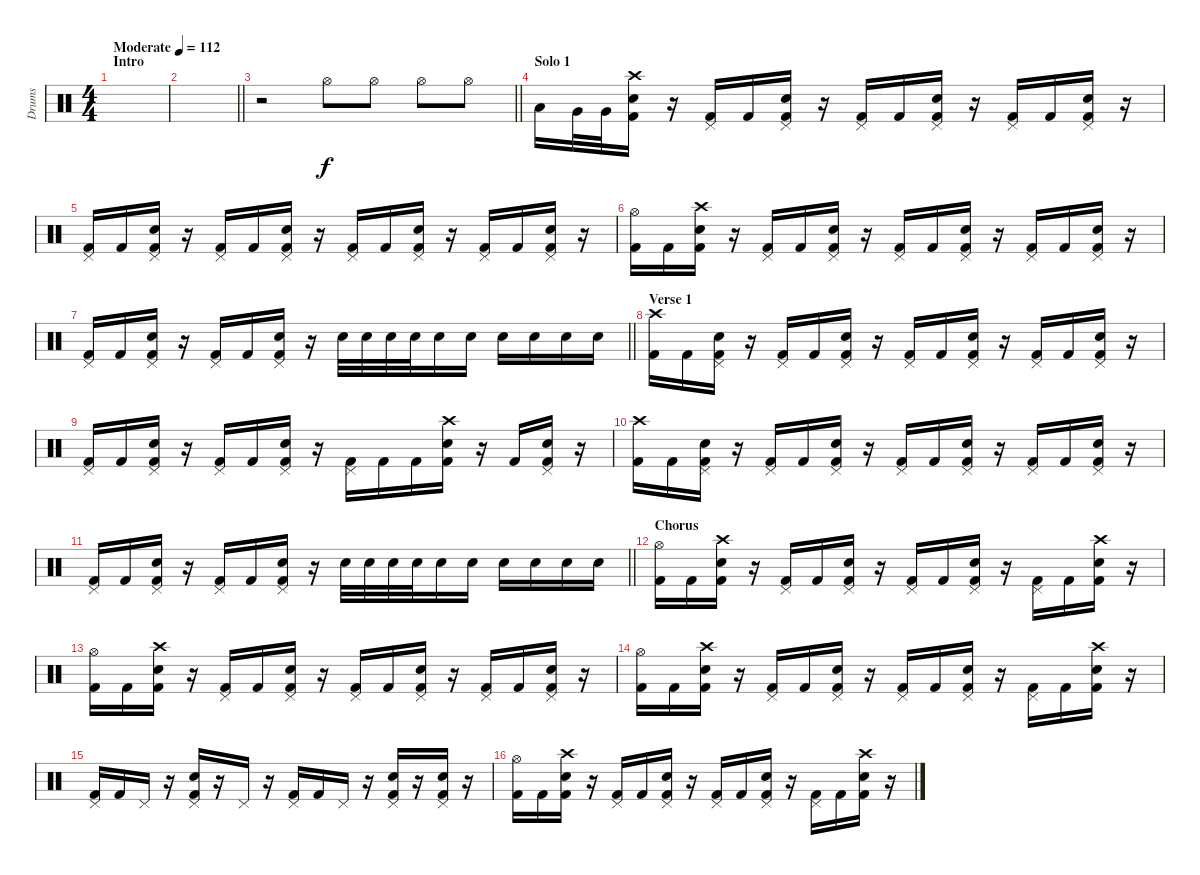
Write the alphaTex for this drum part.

\track ("Drums" "Drums") {instrument percussion}
\staff {score}
\articulation defaults
\ts (4 4)
\section ("" "Intro")
\tempo (112 "Moderate")
\clef neutral
\ks c
|
\barLineRight lightlight
|
\barLineRight lightlight
r.2 "Hi-Hat (open)".8 "Hi-Hat (open)".8 "Hi-Hat (open)".8 "Hi-Hat (open)".8 |
\section ("" "Solo 1")
"Low Tom (hit)".16 "Very Low Tom (hit)".32 "Very Low Tom (hit)".32 ("Crash high (hit)" "Snare (hit) 2" "Kick (hit) 2").16 r.16 ("Pedal Hi-Hat (hit)" "Kick (hit) 2").16 "Kick (hit) 2".16 ("Pedal Hi-Hat (hit)" "Snare (hit) 2" "Kick (hit) 2").16 r.16 ("Pedal Hi-Hat (hit)" "Kick (hit) 2").16 "Kick (hit) 2".16 ("Pedal Hi-Hat (hit)" "Snare (hit) 2" "Kick (hit) 2").16 r.16 ("Pedal Hi-Hat (hit)" "Kick (hit) 2").16 "Kick (hit) 2".16 ("Pedal Hi-Hat (hit)" "Snare (hit) 2" "Kick (hit) 2").16 r.16 |
("Pedal Hi-Hat (hit)" "Kick (hit) 2").16 "Kick (hit) 2".16 ("Pedal Hi-Hat (hit)" "Snare (hit) 2" "Kick (hit) 2").16 r.16 ("Pedal Hi-Hat (hit)" "Kick (hit) 2").16 "Kick (hit) 2".16 ("Pedal Hi-Hat (hit)" "Snare (hit) 2" "Kick (hit) 2").16 r.16 ("Pedal Hi-Hat (hit)" "Kick (hit) 2").16 "Kick (hit) 2".16 ("Pedal Hi-Hat (hit)" "Snare (hit) 2" "Kick (hit) 2").16 r.16 ("Pedal Hi-Hat (hit)" "Kick (hit) 2").16 "Kick (hit) 2".16 ("Pedal Hi-Hat (hit)" "Snare (hit) 2" "Kick (hit) 2").16 r.16 |
("Hi-Hat (open)" "Kick (hit) 2").16 "Kick (hit) 2".16 ("Crash high (hit)" "Snare (hit) 2" "Kick (hit) 2").16 r.16 ("Pedal Hi-Hat (hit)" "Kick (hit) 2").16 "Kick (hit) 2".16 ("Pedal Hi-Hat (hit)" "Snare (hit) 2" "Kick (hit) 2").16 r.16 ("Pedal Hi-Hat (hit)" "Kick (hit) 2").16 "Kick (hit) 2".16 ("Pedal Hi-Hat (hit)" "Snare (hit) 2" "Kick (hit) 2").16 r.16 ("Pedal Hi-Hat (hit)" "Kick (hit) 2").16 "Kick (hit) 2".16 ("Pedal Hi-Hat (hit)" "Snare (hit) 2" "Kick (hit) 2").16 r.16 |
\barLineRight lightlight
("Pedal Hi-Hat (hit)" "Kick (hit) 2").16 "Kick (hit) 2".16 ("Pedal Hi-Hat (hit)" "Snare (hit) 2" "Kick (hit) 2").16 r.16 ("Pedal Hi-Hat (hit)" "Kick (hit) 2").16 "Kick (hit) 2".16 ("Pedal Hi-Hat (hit)" "Snare (hit) 2" "Kick (hit) 2").16 r.16 "Snare (hit) 2".32 "Snare (hit) 2".32 "Snare (hit) 2".32 "Snare (hit) 2".32 "Snare (hit) 2".16 "Snare (hit) 2".16 "Snare (hit) 2".16 "Snare (hit) 2".16 "Snare (hit) 2".16 "Snare (hit) 2".16 |
\section ("" "Verse 1")
("Crash high (hit)" "Kick (hit) 2").16 "Kick (hit) 2".16 ("Pedal Hi-Hat (hit)" "Snare (hit) 2" "Kick (hit) 2").16 r.16 ("Pedal Hi-Hat (hit)" "Kick (hit) 2").16 "Kick (hit) 2".16 ("Pedal Hi-Hat (hit)" "Snare (hit) 2" "Kick (hit) 2").16 r.16 ("Pedal Hi-Hat (hit)" "Kick (hit) 2").16 "Kick (hit) 2".16 ("Pedal Hi-Hat (hit)" "Snare (hit) 2" "Kick (hit) 2").16 r.16 ("Pedal Hi-Hat (hit)" "Kick (hit) 2").16 "Kick (hit) 2".16 ("Pedal Hi-Hat (hit)" "Snare (hit) 2" "Kick (hit) 2").16 r.16 |
("Pedal Hi-Hat (hit)" "Kick (hit) 2").16 "Kick (hit) 2".16 ("Pedal Hi-Hat (hit)" "Snare (hit) 2" "Kick (hit) 2").16 r.16 ("Pedal Hi-Hat (hit)" "Kick (hit) 2").16 "Kick (hit) 2".16 ("Pedal Hi-Hat (hit)" "Snare (hit) 2" "Kick (hit) 2").16 r.16 ("Pedal Hi-Hat (hit)" "Kick (hit) 2").16 "Kick (hit) 2".16 "Kick (hit) 2".16 ("Crash high (hit)" "Snare (hit) 2" "Kick (hit) 2").16 r.16 "Kick (hit) 2".16 ("Pedal Hi-Hat (hit)" "Snare (hit) 2" "Kick (hit) 2").16 r.16 |
("Crash high (hit)" "Kick (hit) 2").16 "Kick (hit) 2".16 ("Pedal Hi-Hat (hit)" "Snare (hit) 2" "Kick (hit) 2").16 r.16 ("Pedal Hi-Hat (hit)" "Kick (hit) 2").16 "Kick (hit) 2".16 ("Pedal Hi-Hat (hit)" "Snare (hit) 2" "Kick (hit) 2").16 r.16 ("Pedal Hi-Hat (hit)" "Kick (hit) 2").16 "Kick (hit) 2".16 ("Pedal Hi-Hat (hit)" "Snare (hit) 2" "Kick (hit) 2").16 r.16 ("Pedal Hi-Hat (hit)" "Kick (hit) 2").16 "Kick (hit) 2".16 ("Pedal Hi-Hat (hit)" "Snare (hit) 2" "Kick (hit) 2").16 r.16 |
\barLineRight lightlight
("Pedal Hi-Hat (hit)" "Kick (hit) 2").16 "Kick (hit) 2".16 ("Pedal Hi-Hat (hit)" "Snare (hit) 2" "Kick (hit) 2").16 r.16 ("Pedal Hi-Hat (hit)" "Kick (hit) 2").16 "Kick (hit) 2".16 ("Pedal Hi-Hat (hit)" "Snare (hit) 2" "Kick (hit) 2").16 r.16 "Snare (hit) 2".32 "Snare (hit) 2".32 "Snare (hit) 2".32 "Snare (hit) 2".32 "Snare (hit) 2".16 "Snare (hit) 2".16 "Snare (hit) 2".16 "Snare (hit) 2".16 "Snare (hit) 2".16 "Snare (hit) 2".16 |
\section ("" "Chorus")
("Hi-Hat (open)" "Kick (hit) 2").16 "Kick (hit) 2".16 ("Crash high (hit)" "Snare (hit) 2" "Kick (hit) 2").16 r.16 ("Pedal Hi-Hat (hit)" "Kick (hit) 2").16 "Kick (hit) 2".16 ("Pedal Hi-Hat (hit)" "Snare (hit) 2" "Kick (hit) 2").16 r.16 ("Pedal Hi-Hat (hit)" "Kick (hit) 2").16 "Kick (hit) 2".16 ("Pedal Hi-Hat (hit)" "Snare (hit) 2" "Kick (hit) 2").16 r.16 ("Pedal Hi-Hat (hit)" "Kick (hit) 2").16 "Kick (hit) 2".16 ("Crash high (hit)" "Snare (hit) 2" "Kick (hit) 2").16 r.16 |
("Hi-Hat (open)" "Kick (hit) 2").16 "Kick (hit) 2".16 ("Crash high (hit)" "Snare (hit) 2" "Kick (hit) 2").16 r.16 ("Pedal Hi-Hat (hit)" "Kick (hit) 2").16 "Kick (hit) 2".16 ("Pedal Hi-Hat (hit)" "Snare (hit) 2" "Kick (hit) 2").16 r.16 ("Pedal Hi-Hat (hit)" "Kick (hit) 2").16 "Kick (hit) 2".16 ("Pedal Hi-Hat (hit)" "Snare (hit) 2" "Kick (hit) 2").16 r.16 ("Pedal Hi-Hat (hit)" "Kick (hit) 2").16 "Kick (hit) 2".16 ("Pedal Hi-Hat (hit)" "Snare (hit) 2" "Kick (hit) 2").16 r.16 |
("Hi-Hat (open)" "Kick (hit) 2").16 "Kick (hit) 2".16 ("Crash high (hit)" "Snare (hit) 2" "Kick (hit) 2").16 r.16 ("Pedal Hi-Hat (hit)" "Kick (hit) 2").16 "Kick (hit) 2".16 ("Pedal Hi-Hat (hit)" "Snare (hit) 2" "Kick (hit) 2").16 r.16 ("Pedal Hi-Hat (hit)" "Kick (hit) 2").16 "Kick (hit) 2".16 ("Pedal Hi-Hat (hit)" "Snare (hit) 2" "Kick (hit) 2").16 r.16 ("Pedal Hi-Hat (hit)" "Kick (hit) 2").16 "Kick (hit) 2".16 ("Crash high (hit)" "Snare (hit) 2" "Kick (hit) 2").16 r.16 |
("Pedal Hi-Hat (hit)" "Kick (hit) 2").16 "Kick (hit) 2".16 "Pedal Hi-Hat (hit)".16 r.16 ("Pedal Hi-Hat (hit)" "Snare (hit) 2" "Kick (hit) 2").16 r.16 "Pedal Hi-Hat (hit)".16 r.16 ("Pedal Hi-Hat (hit)" "Kick (hit) 2").16 "Kick (hit) 2".16 "Pedal Hi-Hat (hit)".16 r.16 ("Pedal Hi-Hat (hit)" "Snare (hit) 2" "Kick (hit) 2").16 r.16 ("Pedal Hi-Hat (hit)" "Snare (hit) 2" "Kick (hit) 2").16 r.16 |
("Hi-Hat (open)" "Kick (hit) 2").16 "Kick (hit) 2".16 ("Crash high (hit)" "Snare (hit) 2" "Kick (hit) 2").16 r.16 ("Pedal Hi-Hat (hit)" "Kick (hit) 2").16 "Kick (hit) 2".16 ("Pedal Hi-Hat (hit)" "Snare (hit) 2" "Kick (hit) 2").16 r.16 ("Pedal Hi-Hat (hit)" "Kick (hit) 2").16 "Kick (hit) 2".16 ("Pedal Hi-Hat (hit)" "Snare (hit) 2" "Kick (hit) 2").16 r.16 ("Pedal Hi-Hat (hit)" "Kick (hit) 2").16 "Kick (hit) 2".16 ("Crash high (hit)" "Snare (hit) 2" "Kick (hit) 2").16 r.16
